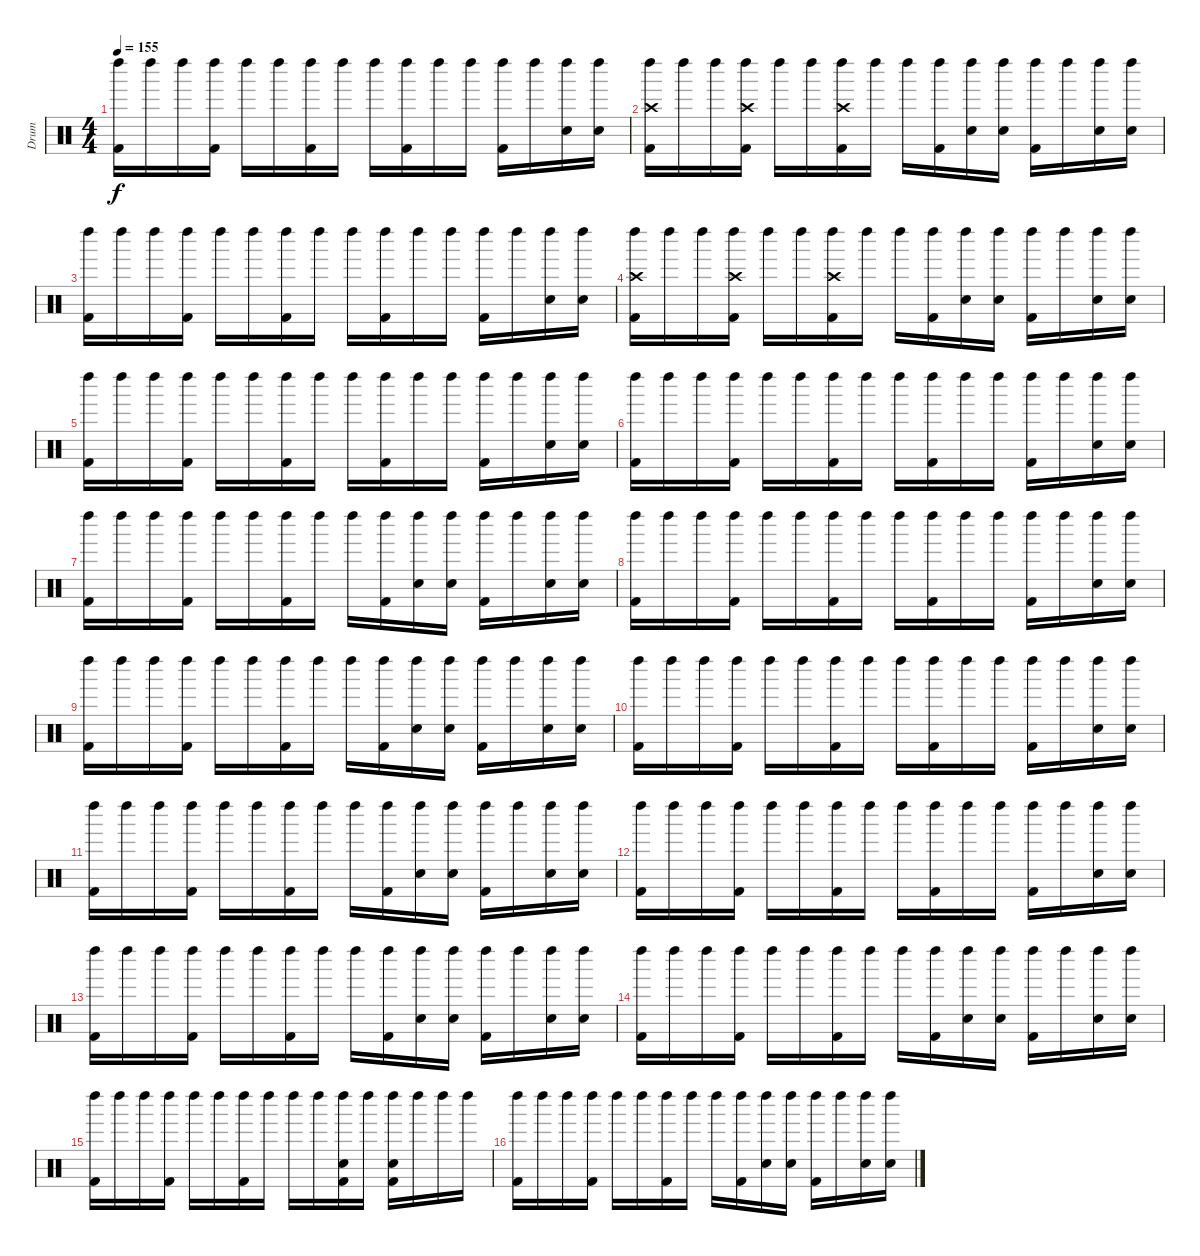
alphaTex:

\track ("Drum" "Drum") {instrument percussion}
\staff {score}
\articulation defaults
\ts (4 4)
\tempo 155
\clef neutral
\ks c
("Left Maraca (hit)" "Kick (hit) 2").16{dy f} "Left Maraca (hit)".16 "Left Maraca (hit)".16 ("Left Maraca (hit)" "Kick (hit) 2").16 "Left Maraca (hit)".16 "Left Maraca (hit)".16 ("Left Maraca (hit)" "Kick (hit) 2").16 "Left Maraca (hit)".16 "Left Maraca (hit)".16 ("Left Maraca (hit)" "Kick (hit) 2").16 "Left Maraca (hit)".16 "Left Maraca (hit)".16 ("Left Maraca (hit)" "Kick (hit) 2").16 "Left Maraca (hit)".16 ("Left Maraca (hit)" "Snare (hit) 2").16 ("Left Maraca (hit)" "Snare (hit) 2").16 |
("Left Maraca (hit)" "Crash high (hit)" "Kick (hit) 2").16 "Left Maraca (hit)".16 "Left Maraca (hit)".16 ("Left Maraca (hit)" "Crash high (hit)" "Kick (hit) 2").16 "Left Maraca (hit)".16 "Left Maraca (hit)".16 ("Left Maraca (hit)" "Crash high (hit)" "Kick (hit) 2").16 "Left Maraca (hit)".16 "Left Maraca (hit)".16 ("Left Maraca (hit)" "Kick (hit) 2").16 ("Left Maraca (hit)" "Snare (hit) 2").16 ("Left Maraca (hit)" "Snare (hit) 2").16 ("Left Maraca (hit)" "Kick (hit) 2").16 "Left Maraca (hit)".16 ("Left Maraca (hit)" "Snare (hit) 2").16 ("Left Maraca (hit)" "Snare (hit) 2").16 |
("Left Maraca (hit)" "Kick (hit) 2").16 "Left Maraca (hit)".16 "Left Maraca (hit)".16 ("Left Maraca (hit)" "Kick (hit) 2").16 "Left Maraca (hit)".16 "Left Maraca (hit)".16 ("Left Maraca (hit)" "Kick (hit) 2").16 "Left Maraca (hit)".16 "Left Maraca (hit)".16 ("Left Maraca (hit)" "Kick (hit) 2").16 "Left Maraca (hit)".16 "Left Maraca (hit)".16 ("Left Maraca (hit)" "Kick (hit) 2").16 "Left Maraca (hit)".16 ("Left Maraca (hit)" "Snare (hit) 2").16 ("Left Maraca (hit)" "Snare (hit) 2").16 |
("Left Maraca (hit)" "Crash high (hit)" "Kick (hit) 2").16 "Left Maraca (hit)".16 "Left Maraca (hit)".16 ("Left Maraca (hit)" "Crash high (hit)" "Kick (hit) 2").16 "Left Maraca (hit)".16 "Left Maraca (hit)".16 ("Left Maraca (hit)" "Crash high (hit)" "Kick (hit) 2").16 "Left Maraca (hit)".16 "Left Maraca (hit)".16 ("Left Maraca (hit)" "Kick (hit) 2").16 ("Left Maraca (hit)" "Snare (hit) 2").16 ("Left Maraca (hit)" "Snare (hit) 2").16 ("Left Maraca (hit)" "Kick (hit) 2").16 "Left Maraca (hit)".16 ("Left Maraca (hit)" "Snare (hit) 2").16 ("Left Maraca (hit)" "Snare (hit) 2").16 |
("Left Maraca (hit)" "Kick (hit) 2").16 "Left Maraca (hit)".16 "Left Maraca (hit)".16 ("Left Maraca (hit)" "Kick (hit) 2").16 "Left Maraca (hit)".16 "Left Maraca (hit)".16 ("Left Maraca (hit)" "Kick (hit) 2").16 "Left Maraca (hit)".16 "Left Maraca (hit)".16 ("Left Maraca (hit)" "Kick (hit) 2").16 "Left Maraca (hit)".16 "Left Maraca (hit)".16 ("Left Maraca (hit)" "Kick (hit) 2").16 "Left Maraca (hit)".16 ("Left Maraca (hit)" "Snare (hit) 2").16 ("Left Maraca (hit)" "Snare (hit) 2").16 |
("Left Maraca (hit)" "Kick (hit) 2").16 "Left Maraca (hit)".16 "Left Maraca (hit)".16 ("Left Maraca (hit)" "Kick (hit) 2").16 "Left Maraca (hit)".16 "Left Maraca (hit)".16 ("Left Maraca (hit)" "Kick (hit) 2").16 "Left Maraca (hit)".16 "Left Maraca (hit)".16 ("Left Maraca (hit)" "Kick (hit) 2").16 "Left Maraca (hit)".16 "Left Maraca (hit)".16 ("Left Maraca (hit)" "Kick (hit) 2").16 "Left Maraca (hit)".16 ("Left Maraca (hit)" "Snare (hit) 2").16 ("Left Maraca (hit)" "Snare (hit) 2").16 |
("Left Maraca (hit)" "Kick (hit) 2").16 "Left Maraca (hit)".16 "Left Maraca (hit)".16 ("Left Maraca (hit)" "Kick (hit) 2").16 "Left Maraca (hit)".16 "Left Maraca (hit)".16 ("Left Maraca (hit)" "Kick (hit) 2").16 "Left Maraca (hit)".16 "Left Maraca (hit)".16 ("Left Maraca (hit)" "Kick (hit) 2").16 ("Left Maraca (hit)" "Snare (hit) 2").16 ("Left Maraca (hit)" "Snare (hit) 2").16 ("Left Maraca (hit)" "Kick (hit) 2").16 "Left Maraca (hit)".16 ("Left Maraca (hit)" "Snare (hit) 2").16 ("Left Maraca (hit)" "Snare (hit) 2").16 |
("Left Maraca (hit)" "Kick (hit) 2").16 "Left Maraca (hit)".16 "Left Maraca (hit)".16 ("Left Maraca (hit)" "Kick (hit) 2").16 "Left Maraca (hit)".16 "Left Maraca (hit)".16 ("Left Maraca (hit)" "Kick (hit) 2").16 "Left Maraca (hit)".16 "Left Maraca (hit)".16 ("Left Maraca (hit)" "Kick (hit) 2").16 "Left Maraca (hit)".16 "Left Maraca (hit)".16 ("Left Maraca (hit)" "Kick (hit) 2").16 "Left Maraca (hit)".16 ("Left Maraca (hit)" "Snare (hit) 2").16 ("Left Maraca (hit)" "Snare (hit) 2").16 |
("Left Maraca (hit)" "Kick (hit) 2").16 "Left Maraca (hit)".16 "Left Maraca (hit)".16 ("Left Maraca (hit)" "Kick (hit) 2").16 "Left Maraca (hit)".16 "Left Maraca (hit)".16 ("Left Maraca (hit)" "Kick (hit) 2").16 "Left Maraca (hit)".16 "Left Maraca (hit)".16 ("Left Maraca (hit)" "Kick (hit) 2").16 ("Left Maraca (hit)" "Snare (hit) 2").16 ("Left Maraca (hit)" "Snare (hit) 2").16 ("Left Maraca (hit)" "Kick (hit) 2").16 "Left Maraca (hit)".16 ("Left Maraca (hit)" "Snare (hit) 2").16 ("Left Maraca (hit)" "Snare (hit) 2").16 |
("Left Maraca (hit)" "Kick (hit) 2").16 "Left Maraca (hit)".16 "Left Maraca (hit)".16 ("Left Maraca (hit)" "Kick (hit) 2").16 "Left Maraca (hit)".16 "Left Maraca (hit)".16 ("Left Maraca (hit)" "Kick (hit) 2").16 "Left Maraca (hit)".16 "Left Maraca (hit)".16 ("Left Maraca (hit)" "Kick (hit) 2").16 "Left Maraca (hit)".16 "Left Maraca (hit)".16 ("Left Maraca (hit)" "Kick (hit) 2").16 "Left Maraca (hit)".16 ("Left Maraca (hit)" "Snare (hit) 2").16 ("Left Maraca (hit)" "Snare (hit) 2").16 |
("Left Maraca (hit)" "Kick (hit) 2").16 "Left Maraca (hit)".16 "Left Maraca (hit)".16 ("Left Maraca (hit)" "Kick (hit) 2").16 "Left Maraca (hit)".16 "Left Maraca (hit)".16 ("Left Maraca (hit)" "Kick (hit) 2").16 "Left Maraca (hit)".16 "Left Maraca (hit)".16 ("Left Maraca (hit)" "Kick (hit) 2").16 ("Left Maraca (hit)" "Snare (hit) 2").16 ("Left Maraca (hit)" "Snare (hit) 2").16 ("Left Maraca (hit)" "Kick (hit) 2").16 "Left Maraca (hit)".16 ("Left Maraca (hit)" "Snare (hit) 2").16 ("Left Maraca (hit)" "Snare (hit) 2").16 |
("Left Maraca (hit)" "Kick (hit) 2").16 "Left Maraca (hit)".16 "Left Maraca (hit)".16 ("Left Maraca (hit)" "Kick (hit) 2").16 "Left Maraca (hit)".16 "Left Maraca (hit)".16 ("Left Maraca (hit)" "Kick (hit) 2").16 "Left Maraca (hit)".16 "Left Maraca (hit)".16 ("Left Maraca (hit)" "Kick (hit) 2").16 "Left Maraca (hit)".16 "Left Maraca (hit)".16 ("Left Maraca (hit)" "Kick (hit) 2").16 "Left Maraca (hit)".16 ("Left Maraca (hit)" "Snare (hit) 2").16 ("Left Maraca (hit)" "Snare (hit) 2").16 |
("Left Maraca (hit)" "Kick (hit) 2").16 "Left Maraca (hit)".16 "Left Maraca (hit)".16 ("Left Maraca (hit)" "Kick (hit) 2").16 "Left Maraca (hit)".16 "Left Maraca (hit)".16 ("Left Maraca (hit)" "Kick (hit) 2").16 "Left Maraca (hit)".16 "Left Maraca (hit)".16 ("Left Maraca (hit)" "Kick (hit) 2").16 ("Left Maraca (hit)" "Snare (hit) 2").16 ("Left Maraca (hit)" "Snare (hit) 2").16 ("Left Maraca (hit)" "Kick (hit) 2").16 "Left Maraca (hit)".16 ("Left Maraca (hit)" "Snare (hit) 2").16 ("Left Maraca (hit)" "Snare (hit) 2").16 |
("Left Maraca (hit)" "Kick (hit) 2").16 "Left Maraca (hit)".16 "Left Maraca (hit)".16 ("Left Maraca (hit)" "Kick (hit) 2").16 "Left Maraca (hit)".16 "Left Maraca (hit)".16 ("Left Maraca (hit)" "Kick (hit) 2").16 "Left Maraca (hit)".16 "Left Maraca (hit)".16 ("Left Maraca (hit)" "Kick (hit) 2").16 ("Left Maraca (hit)" "Snare (hit) 2").16 ("Left Maraca (hit)" "Snare (hit) 2").16 ("Left Maraca (hit)" "Kick (hit) 2").16 "Left Maraca (hit)".16 ("Left Maraca (hit)" "Snare (hit) 2").16 ("Left Maraca (hit)" "Snare (hit) 2").16 |
("Left Maraca (hit)" "Kick (hit) 2").16 "Left Maraca (hit)".16 "Left Maraca (hit)".16 ("Left Maraca (hit)" "Kick (hit) 2").16 "Left Maraca (hit)".16 "Left Maraca (hit)".16 ("Left Maraca (hit)" "Kick (hit) 2").16 "Left Maraca (hit)".16 "Left Maraca (hit)".16 "Left Maraca (hit)".16 ("Left Maraca (hit)" "Snare (hit) 2" "Kick (hit) 2").16 "Left Maraca (hit)".16 ("Left Maraca (hit)" "Snare (hit) 2" "Kick (hit) 2").16 "Left Maraca (hit)".16 "Left Maraca (hit)".16 "Left Maraca (hit)".16 |
("Left Maraca (hit)" "Kick (hit) 2").16 "Left Maraca (hit)".16 "Left Maraca (hit)".16 ("Left Maraca (hit)" "Kick (hit) 2").16 "Left Maraca (hit)".16 "Left Maraca (hit)".16 ("Left Maraca (hit)" "Kick (hit) 2").16 "Left Maraca (hit)".16 "Left Maraca (hit)".16 ("Left Maraca (hit)" "Kick (hit) 2").16 ("Left Maraca (hit)" "Snare (hit) 2").16 ("Left Maraca (hit)" "Snare (hit) 2").16 ("Left Maraca (hit)" "Kick (hit) 2").16 "Left Maraca (hit)".16 ("Left Maraca (hit)" "Snare (hit) 2").16 ("Left Maraca (hit)" "Snare (hit) 2").16
